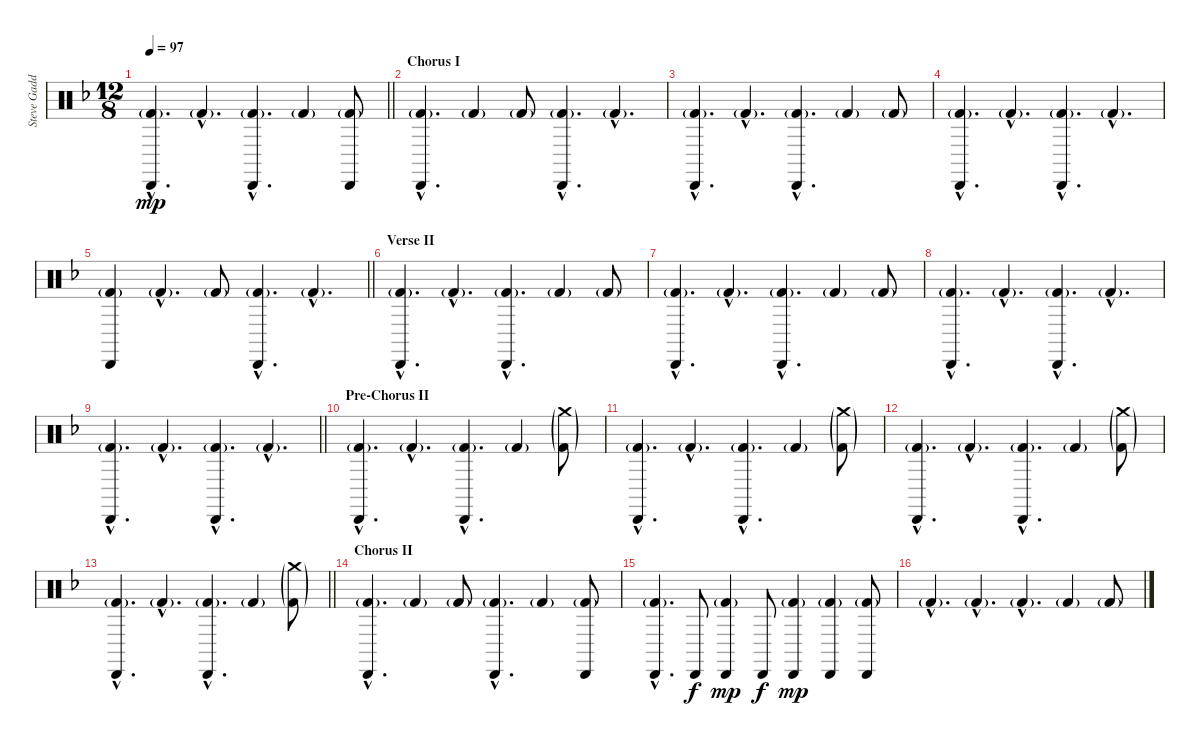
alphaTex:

\track ("Steve Gadd Drums" "Steve Gadd") {instrument percussion}
\staff {score}
\articulation defaults
\ts (12 8)
\tempo 97
\clef neutral
\barLineRight lightlight
\ks f
("Cabasa (hit)"{hac} "Kick (hit) 2"{g hac}).4{d dy mp} "Kick (hit) 2"{g hac}.4{d} ("Cabasa (hit)"{hac} "Kick (hit) 2"{g hac}).4{d} "Kick (hit) 2"{g}.4 ("Cabasa (hit)" "Kick (hit) 2"{g}).8 |
\section ("" "Chorus I")
("Cabasa (hit)"{hac} "Kick (hit) 2"{g hac}).4{d} "Kick (hit) 2"{g}.4 "Kick (hit) 2"{g}.8 ("Cabasa (hit)"{hac} "Kick (hit) 2"{g hac}).4{d} "Kick (hit) 2"{g hac}.4{d} |
("Cabasa (hit)"{hac} "Kick (hit) 2"{g hac}).4{d} "Kick (hit) 2"{g hac}.4{d} ("Cabasa (hit)"{hac} "Kick (hit) 2"{g hac}).4{d} "Kick (hit) 2"{g}.4 "Kick (hit) 2"{g}.8 |
("Cabasa (hit)"{hac} "Kick (hit) 2"{g hac}).4{d} "Kick (hit) 2"{g hac}.4{d} ("Cabasa (hit)"{hac} "Kick (hit) 2"{g hac}).4{d} "Kick (hit) 2"{g hac}.4{d} |
\barLineRight lightlight
("Cabasa (hit)" "Kick (hit) 2"{g}).4 "Kick (hit) 2"{g hac}.4{d} "Kick (hit) 2"{g}.8 ("Cabasa (hit)"{hac} "Kick (hit) 2"{g hac}).4{d} "Kick (hit) 2"{g hac}.4{d} |
\section ("" "Verse II")
("Cabasa (hit)"{hac} "Kick (hit) 2"{g hac}).4{d} "Kick (hit) 2"{g hac}.4{d} ("Cabasa (hit)"{hac} "Kick (hit) 2"{g hac}).4{d} "Kick (hit) 2"{g}.4 "Kick (hit) 2"{g}.8 |
("Cabasa (hit)"{hac} "Kick (hit) 2"{g hac}).4{d} "Kick (hit) 2"{g hac}.4{d} ("Cabasa (hit)"{hac} "Kick (hit) 2"{g hac}).4{d} "Kick (hit) 2"{g}.4 "Kick (hit) 2"{g}.8 |
("Cabasa (hit)"{hac} "Kick (hit) 2"{g hac}).4{d} "Kick (hit) 2"{g hac}.4{d} ("Cabasa (hit)"{hac} "Kick (hit) 2"{g hac}).4{d} "Kick (hit) 2"{g hac}.4{d} |
\barLineRight lightlight
("Cabasa (hit)"{hac} "Kick (hit) 2"{g hac}).4{d} "Kick (hit) 2"{g hac}.4{d} ("Cabasa (hit)"{hac} "Kick (hit) 2"{g hac}).4{d} "Kick (hit) 2"{g hac}.4{d} |
\section ("" "Pre-Chorus II")
("Cabasa (hit)"{hac} "Kick (hit) 2"{g hac}).4{d} "Kick (hit) 2"{g hac}.4{d} ("Cabasa (hit)"{hac} "Kick (hit) 2"{g hac}).4{d} "Kick (hit) 2"{g}.4 ("Crash medium (hit)"{g} "Kick (hit) 2"{g}).8 |
("Cabasa (hit)"{hac} "Kick (hit) 2"{g hac}).4{d} "Kick (hit) 2"{g hac}.4{d} ("Cabasa (hit)"{hac} "Kick (hit) 2"{g hac}).4{d} "Kick (hit) 2"{g}.4 ("Crash medium (hit)"{g} "Kick (hit) 2"{g}).8 |
("Cabasa (hit)"{hac} "Kick (hit) 2"{g hac}).4{d} "Kick (hit) 2"{g hac}.4{d} ("Cabasa (hit)"{hac} "Kick (hit) 2"{g hac}).4{d} "Kick (hit) 2"{g}.4 ("Crash medium (hit)"{g} "Kick (hit) 2"{g}).8 |
\barLineRight lightlight
("Cabasa (hit)"{hac} "Kick (hit) 2"{g hac}).4{d} "Kick (hit) 2"{g hac}.4{d} ("Cabasa (hit)"{hac} "Kick (hit) 2"{g hac}).4{d} "Kick (hit) 2"{g}.4 ("Crash medium (hit)"{g} "Kick (hit) 2"{g}).8 |
\section ("" "Chorus II")
("Cabasa (hit)"{hac} "Kick (hit) 2"{g hac}).4{d} "Kick (hit) 2"{g}.4 "Kick (hit) 2"{g}.8 ("Cabasa (hit)"{hac} "Kick (hit) 2"{g hac}).4{d} "Kick (hit) 2"{g}.4 ("Cabasa (hit)" "Kick (hit) 2"{g}).8 |
("Cabasa (hit)"{hac} "Kick (hit) 2"{g hac}).4{d} "Cabasa (hit)".8{dy f} ("Cabasa (hit)" "Kick (hit) 2"{g}).4{dy mp} "Cabasa (hit)".8{dy f} ("Cabasa (hit)" "Kick (hit) 2"{g}).4{dy mp} ("Cabasa (hit)" "Kick (hit) 2"{g}).4 ("Cabasa (hit)" "Kick (hit) 2"{g}).8 |
"Kick (hit) 2"{g hac}.4{d} "Kick (hit) 2"{g hac}.4{d} "Kick (hit) 2"{g hac}.4{d} "Kick (hit) 2"{g}.4 "Kick (hit) 2"{g}.8
